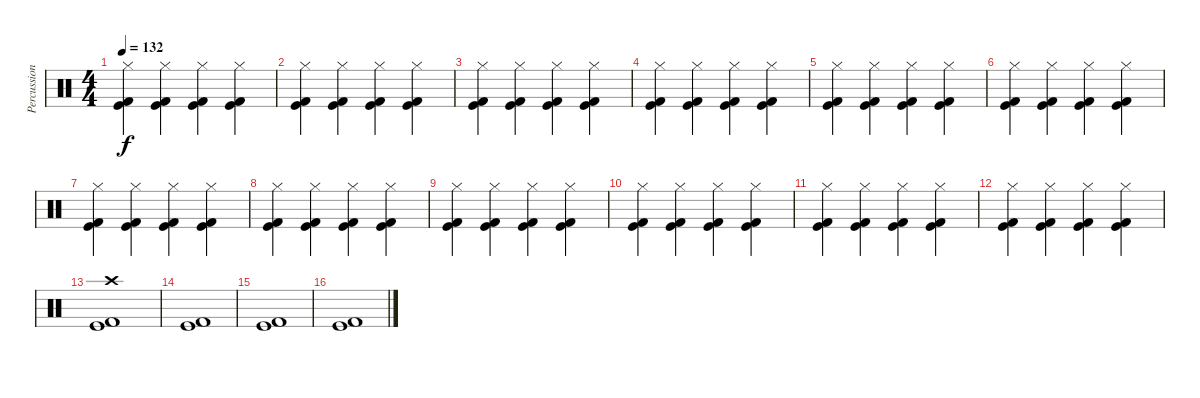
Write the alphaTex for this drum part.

\track ("Percussions" "Percussion") {instrument percussion}
\staff {score}
\articulation defaults
\ts (4 4)
\tempo 132
\clef neutral
\ks c
("Kick (hit) 2" "Kick (hit)" "Hi-Hat (closed)").4{dy f} ("Kick (hit) 2" "Kick (hit)" "Hi-Hat (closed)").4 ("Kick (hit) 2" "Kick (hit)" "Hi-Hat (closed)").4 ("Kick (hit) 2" "Kick (hit)" "Hi-Hat (closed)").4 |
("Kick (hit) 2" "Kick (hit)" "Hi-Hat (closed)").4 ("Kick (hit) 2" "Kick (hit)" "Hi-Hat (closed)").4 ("Kick (hit) 2" "Kick (hit)" "Hi-Hat (closed)").4 ("Kick (hit) 2" "Kick (hit)" "Hi-Hat (closed)").4 |
("Kick (hit) 2" "Kick (hit)" "Hi-Hat (closed)").4 ("Kick (hit) 2" "Kick (hit)" "Hi-Hat (closed)").4 ("Kick (hit) 2" "Kick (hit)" "Hi-Hat (closed)").4 ("Kick (hit) 2" "Kick (hit)" "Hi-Hat (closed)").4 |
("Kick (hit) 2" "Kick (hit)" "Hi-Hat (closed)").4 ("Kick (hit) 2" "Kick (hit)" "Hi-Hat (closed)").4 ("Kick (hit) 2" "Kick (hit)" "Hi-Hat (closed)").4 ("Kick (hit) 2" "Kick (hit)" "Hi-Hat (closed)").4 |
("Kick (hit) 2" "Kick (hit)" "Hi-Hat (closed)").4 ("Kick (hit) 2" "Kick (hit)" "Hi-Hat (closed)").4 ("Kick (hit) 2" "Kick (hit)" "Hi-Hat (closed)").4 ("Kick (hit) 2" "Kick (hit)" "Hi-Hat (closed)").4 |
("Kick (hit) 2" "Kick (hit)" "Hi-Hat (closed)").4 ("Kick (hit) 2" "Kick (hit)" "Hi-Hat (closed)").4 ("Kick (hit) 2" "Kick (hit)" "Hi-Hat (closed)").4 ("Kick (hit) 2" "Kick (hit)" "Hi-Hat (closed)").4 |
("Kick (hit) 2" "Kick (hit)" "Hi-Hat (closed)").4 ("Kick (hit) 2" "Kick (hit)" "Hi-Hat (closed)").4 ("Kick (hit) 2" "Kick (hit)" "Hi-Hat (closed)").4 ("Kick (hit) 2" "Kick (hit)" "Hi-Hat (closed)").4 |
("Kick (hit) 2" "Kick (hit)" "Hi-Hat (closed)").4 ("Kick (hit) 2" "Kick (hit)" "Hi-Hat (closed)").4 ("Kick (hit) 2" "Kick (hit)" "Hi-Hat (closed)").4 ("Kick (hit) 2" "Kick (hit)" "Hi-Hat (closed)").4 |
("Kick (hit) 2" "Kick (hit)" "Hi-Hat (closed)").4 ("Kick (hit) 2" "Kick (hit)" "Hi-Hat (closed)").4 ("Kick (hit) 2" "Kick (hit)" "Hi-Hat (closed)").4 ("Kick (hit) 2" "Kick (hit)" "Hi-Hat (closed)").4 |
("Kick (hit) 2" "Kick (hit)" "Hi-Hat (closed)").4 ("Kick (hit) 2" "Kick (hit)" "Hi-Hat (closed)").4 ("Kick (hit) 2" "Kick (hit)" "Hi-Hat (closed)").4 ("Kick (hit) 2" "Kick (hit)" "Hi-Hat (closed)").4 |
("Kick (hit) 2" "Kick (hit)" "Hi-Hat (closed)").4 ("Kick (hit) 2" "Kick (hit)" "Hi-Hat (closed)").4 ("Kick (hit) 2" "Kick (hit)" "Hi-Hat (closed)").4 ("Kick (hit) 2" "Kick (hit)" "Hi-Hat (closed)").4 |
("Kick (hit) 2" "Kick (hit)" "Hi-Hat (closed)").4 ("Kick (hit) 2" "Kick (hit)" "Hi-Hat (closed)").4 ("Kick (hit) 2" "Kick (hit)" "Hi-Hat (closed)").4 ("Kick (hit) 2" "Kick (hit)" "Hi-Hat (closed)").4 |
("Kick (hit) 2" "Kick (hit)" "Crash high (hit)").1 |
("Kick (hit) 2" "Kick (hit)").1 |
("Kick (hit) 2" "Kick (hit)").1 |
("Kick (hit) 2" "Kick (hit)").1
